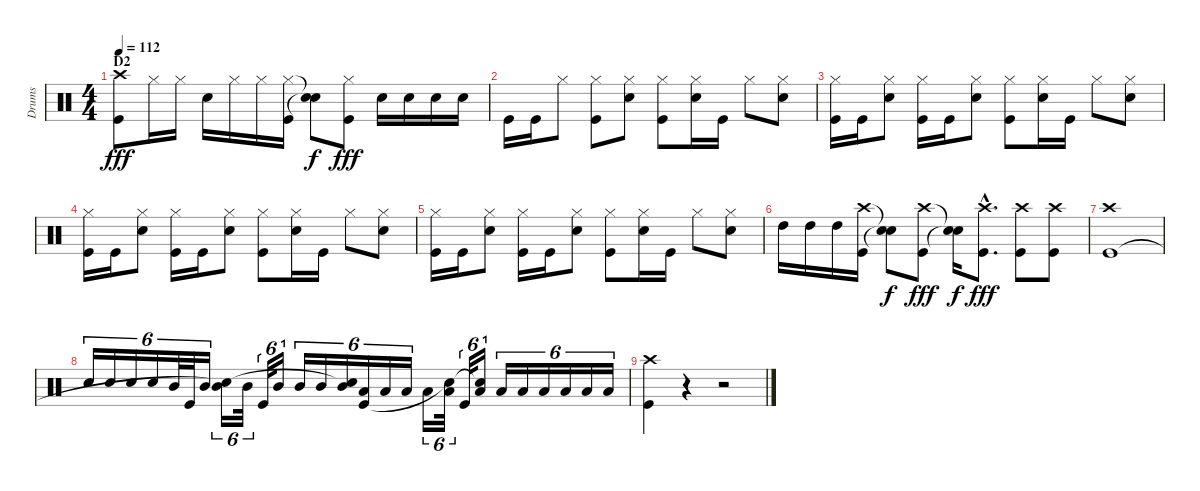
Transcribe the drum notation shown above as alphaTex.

\track ("Drums" "Drums") {instrument percussion}
\staff {score}
\articulation defaults
\ts (4 4)
\section ("" "D2")
\tempo 112
\clef neutral
\ks c
("Crash high (hit)" "Kick (hit)").8{dy fff} "Hi-Hat (closed)".16 "Hi-Hat (closed)".16 "Snare (hit) 2".16 "Hi-Hat (closed)".16 "Hi-Hat (closed)".16 ("Hi-Hat (closed)" "Kick (hit)").16 ("Snare (hit)"{t} "Snare (hit)"{t}).8{dy f} ("Hi-Hat (closed)" "Kick (hit)").8{dy fff} "Snare (hit) 2".16 "Snare (hit) 2".16 "Snare (hit) 2".16 "Snare (hit) 2".16 |
"Kick (hit)".16 "Kick (hit)".16 "Hi-Hat (closed)".8 ("Hi-Hat (closed)" "Kick (hit)").8 ("Hi-Hat (closed)" "Snare (hit) 2").8 ("Hi-Hat (closed)" "Kick (hit)").8 ("Hi-Hat (closed)" "Snare (hit) 2").16 "Kick (hit)".16 "Hi-Hat (closed)".8 ("Hi-Hat (closed)" "Snare (hit) 2").8 |
("Hi-Hat (closed)" "Kick (hit)").16 "Kick (hit)".16 ("Hi-Hat (closed)" "Snare (hit) 2").8 ("Hi-Hat (closed)" "Kick (hit)").16 "Kick (hit)".16 ("Hi-Hat (closed)" "Snare (hit) 2").8 ("Hi-Hat (closed)" "Kick (hit)").8 ("Hi-Hat (closed)" "Snare (hit) 2").16 "Kick (hit)".16 "Hi-Hat (closed)".8 ("Hi-Hat (closed)" "Snare (hit) 2").8 |
("Hi-Hat (closed)" "Kick (hit)").16 "Kick (hit)".16 ("Hi-Hat (closed)" "Snare (hit) 2").8 ("Hi-Hat (closed)" "Kick (hit)").16 "Kick (hit)".16 ("Hi-Hat (closed)" "Snare (hit) 2").8 ("Hi-Hat (closed)" "Kick (hit)").8 ("Hi-Hat (closed)" "Snare (hit) 2").16 "Kick (hit)".16 "Hi-Hat (closed)".8 ("Hi-Hat (closed)" "Snare (hit) 2").8 |
("Hi-Hat (closed)" "Kick (hit)").16 "Kick (hit)".16 ("Hi-Hat (closed)" "Snare (hit) 2").8 ("Hi-Hat (closed)" "Kick (hit)").16 "Kick (hit)".16 ("Hi-Hat (closed)" "Snare (hit) 2").8 ("Hi-Hat (closed)" "Kick (hit)").8 ("Hi-Hat (closed)" "Snare (hit) 2").16 "Kick (hit)".16 "Hi-Hat (closed)".8 ("Hi-Hat (closed)" "Snare (hit) 2").8 |
"High Tom (hit)".16 "High Tom (hit)".16 "High Tom (hit)".16 ("Crash high (hit)" "Kick (hit)").16 ("Snare (hit)"{t} "Snare (hit)"{t}).8{dy f} ("Crash high (hit)" "Kick (hit)").8{dy fff} ("Snare (hit)"{t} "Snare (hit)"{t}).16{dy f} ("Crash high (hit)"{hac} "Kick (hit)"{hac}).8{d dy fff} ("Crash high (hit)" "Kick (hit)").8 ("Crash high (hit)" "Kick (hit)").8 |
("Crash high (hit)" "Kick (hit)").1 |
"Snare (hit) 2".16{tu (6 4)} "Snare (hit) 2".16{tu (6 4)} "Snare (hit) 2".16{tu (6 4)} "Snare (hit) 2".16{tu (6 4)} "Mid Tom (hit)".32{tu (6 4)} "Kick (hit)".32{tu (6 4)} "Mid Tom (hit)".16{tu (6 4)} ("Mid Tom (hit)" "Snare (hit)"{t}).16{tu (6 4)} "Mid Tom (hit)".32{tu (6 4)} "Kick (hit)".32{tu (6 4)} "Mid Tom (hit)".16{tu (6 4)} "Mid Tom (hit)".16{tu (6 4)} "Mid Tom (hit)".16{tu (6 4)} ("Mid Tom (hit)" "Snare (hit)"{t}).16{tu (6 4)} ("Low Tom (hit)" "Kick (hit)").16{tu (6 4)} "Low Tom (hit)".16{tu (6 4)} "Low Tom (hit)".16{tu (6 4)} "Low Tom (hit)".16{tu (6 4)} ("Low Tom (hit)" "Snare (hit)"{t}).32{tu (6 4)} "Kick (hit)".32{tu (6 4)} ("Low Tom (hit)" "Snare (hit)"{t}).16{tu (6 4)} "Low Tom (hit)".16{tu (6 4)} "Low Tom (hit)".16{tu (6 4)} "Low Tom (hit)".16{tu (6 4)} "Low Tom (hit)".16{tu (6 4)} "Low Tom (hit)".16{tu (6 4)} "Low Tom (hit)".16{tu (6 4)} |
("Crash high (hit)" "Kick (hit)").4 r.4 r.2
